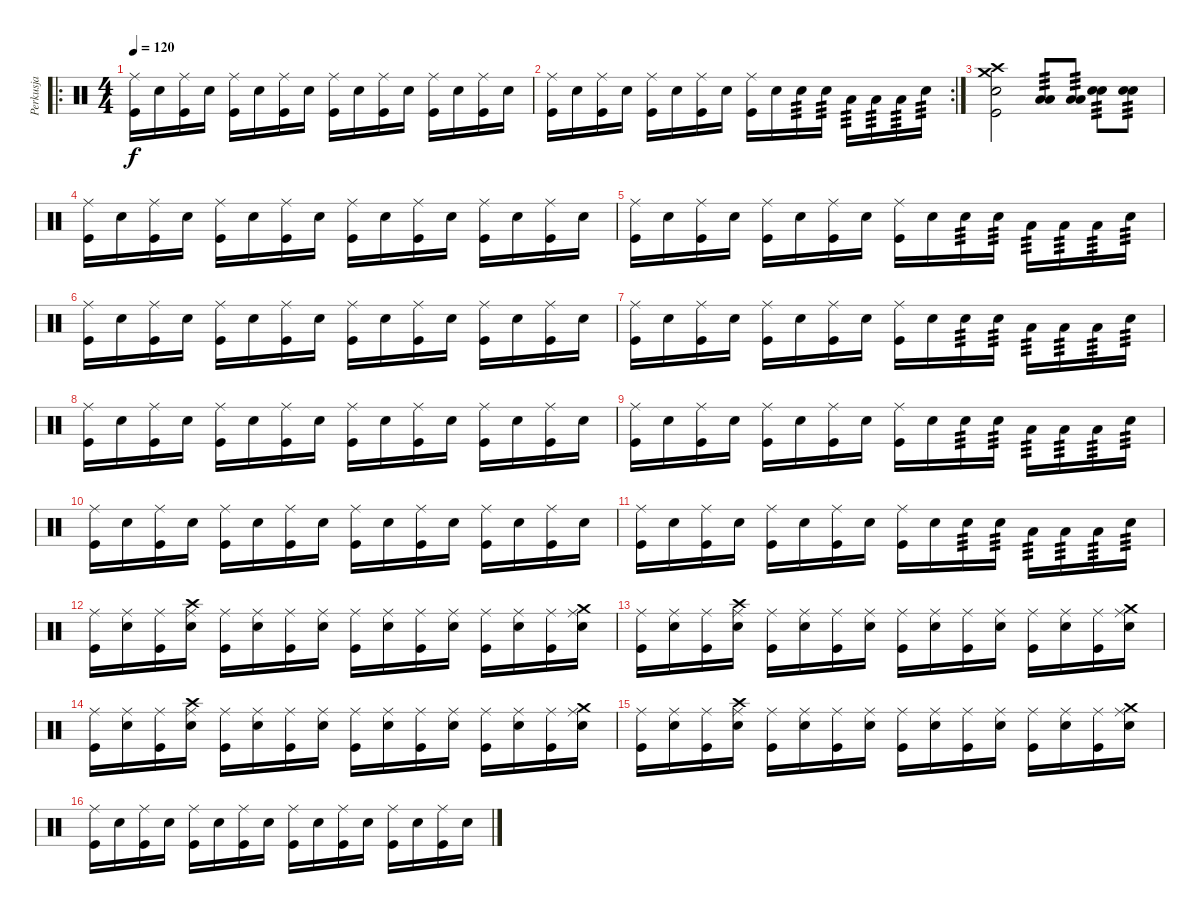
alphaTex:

\track ("Perkusja" "Perkusja") {instrument percussion}
\staff {score}
\articulation defaults
\ro
\ts (4 4)
\tempo 120
\clef neutral
\ks c
("Ride (middle)" "Kick (hit)").16{dy f} "Snare (hit) 2".16 ("Ride (middle)" "Kick (hit)").16 "Snare (hit) 2".16 ("Ride (middle)" "Kick (hit)").16 "Snare (hit) 2".16 ("Ride (middle)" "Kick (hit)").16 "Snare (hit) 2".16 ("Ride (middle)" "Kick (hit)").16 "Snare (hit) 2".16 ("Ride (middle)" "Kick (hit)").16 "Snare (hit) 2".16 ("Ride (middle)" "Kick (hit)").16 "Snare (hit) 2".16 ("Ride (middle)" "Kick (hit)").16 "Snare (hit) 2".16 |
\rc 2
("Ride (middle)" "Kick (hit)").16 "Snare (hit) 2".16 ("Ride (middle)" "Kick (hit)").16 "Snare (hit) 2".16 ("Ride (middle)" "Kick (hit)").16 "Snare (hit) 2".16 ("Ride (middle)" "Kick (hit)").16 "Snare (hit) 2".16 ("Ride (middle)" "Kick (hit)").16 "Snare (hit) 2".16 "Electric Snare (hit)".16{tp 3} "Electric Snare (hit)".16{tp 3} "Low Floor Tom (hit)".16{tp 3} "Low Floor Tom (hit)".16{tp 3} "Low Tom (hit)".16{tp 3} "Snare (hit) 2".16{tp 3} |
("Crash medium (hit)" "Crash high (hit)" "Kick (hit)" "Electric Snare (hit)").2 ("Low Floor Tom (hit)" "Low Tom (hit)").8{tp 3} ("Low Tom (hit)" "Low Floor Tom (hit)").8{tp 3} ("Snare (hit) 2" "Electric Snare (hit)").8{tp 3} ("Snare (hit) 2" "Electric Snare (hit)").8{tp 3} |
("Ride (middle)" "Kick (hit)").16 "Snare (hit) 2".16 ("Ride (middle)" "Kick (hit)").16 "Snare (hit) 2".16 ("Ride (middle)" "Kick (hit)").16 "Snare (hit) 2".16 ("Ride (middle)" "Kick (hit)").16 "Snare (hit) 2".16 ("Ride (middle)" "Kick (hit)").16 "Snare (hit) 2".16 ("Ride (middle)" "Kick (hit)").16 "Snare (hit) 2".16 ("Ride (middle)" "Kick (hit)").16 "Snare (hit) 2".16 ("Ride (middle)" "Kick (hit)").16 "Snare (hit) 2".16 |
("Ride (middle)" "Kick (hit)").16 "Snare (hit) 2".16 ("Ride (middle)" "Kick (hit)").16 "Snare (hit) 2".16 ("Ride (middle)" "Kick (hit)").16 "Snare (hit) 2".16 ("Ride (middle)" "Kick (hit)").16 "Snare (hit) 2".16 ("Ride (middle)" "Kick (hit)").16 "Snare (hit) 2".16 "Electric Snare (hit)".16{tp 3} "Electric Snare (hit)".16{tp 3} "Low Floor Tom (hit)".16{tp 3} "Low Floor Tom (hit)".16{tp 3} "Low Tom (hit)".16{tp 3} "Snare (hit) 2".16{tp 3} |
("Ride (middle)" "Kick (hit)").16 "Snare (hit) 2".16 ("Ride (middle)" "Kick (hit)").16 "Snare (hit) 2".16 ("Ride (middle)" "Kick (hit)").16 "Snare (hit) 2".16 ("Ride (middle)" "Kick (hit)").16 "Snare (hit) 2".16 ("Ride (middle)" "Kick (hit)").16 "Snare (hit) 2".16 ("Ride (middle)" "Kick (hit)").16 "Snare (hit) 2".16 ("Ride (middle)" "Kick (hit)").16 "Snare (hit) 2".16 ("Ride (middle)" "Kick (hit)").16 "Snare (hit) 2".16 |
("Ride (middle)" "Kick (hit)").16 "Snare (hit) 2".16 ("Ride (middle)" "Kick (hit)").16 "Snare (hit) 2".16 ("Ride (middle)" "Kick (hit)").16 "Snare (hit) 2".16 ("Ride (middle)" "Kick (hit)").16 "Snare (hit) 2".16 ("Ride (middle)" "Kick (hit)").16 "Snare (hit) 2".16 "Electric Snare (hit)".16{tp 3} "Electric Snare (hit)".16{tp 3} "Low Floor Tom (hit)".16{tp 3} "Low Floor Tom (hit)".16{tp 3} "Low Tom (hit)".16{tp 3} "Snare (hit) 2".16{tp 3} |
("Ride (middle)" "Kick (hit)").16 "Snare (hit) 2".16 ("Ride (middle)" "Kick (hit)").16 "Snare (hit) 2".16 ("Ride (middle)" "Kick (hit)").16 "Snare (hit) 2".16 ("Ride (middle)" "Kick (hit)").16 "Snare (hit) 2".16 ("Ride (middle)" "Kick (hit)").16 "Snare (hit) 2".16 ("Ride (middle)" "Kick (hit)").16 "Snare (hit) 2".16 ("Ride (middle)" "Kick (hit)").16 "Snare (hit) 2".16 ("Ride (middle)" "Kick (hit)").16 "Snare (hit) 2".16 |
("Ride (middle)" "Kick (hit)").16 "Snare (hit) 2".16 ("Ride (middle)" "Kick (hit)").16 "Snare (hit) 2".16 ("Ride (middle)" "Kick (hit)").16 "Snare (hit) 2".16 ("Ride (middle)" "Kick (hit)").16 "Snare (hit) 2".16 ("Ride (middle)" "Kick (hit)").16 "Snare (hit) 2".16 "Electric Snare (hit)".16{tp 3} "Electric Snare (hit)".16{tp 3} "Low Floor Tom (hit)".16{tp 3} "Low Floor Tom (hit)".16{tp 3} "Low Tom (hit)".16{tp 3} "Snare (hit) 2".16{tp 3} |
("Ride (middle)" "Kick (hit)").16 "Snare (hit) 2".16 ("Ride (middle)" "Kick (hit)").16 "Snare (hit) 2".16 ("Ride (middle)" "Kick (hit)").16 "Snare (hit) 2".16 ("Ride (middle)" "Kick (hit)").16 "Snare (hit) 2".16 ("Ride (middle)" "Kick (hit)").16 "Snare (hit) 2".16 ("Ride (middle)" "Kick (hit)").16 "Snare (hit) 2".16 ("Ride (middle)" "Kick (hit)").16 "Snare (hit) 2".16 ("Ride (middle)" "Kick (hit)").16 "Snare (hit) 2".16 |
("Ride (middle)" "Kick (hit)").16 "Snare (hit) 2".16 ("Ride (middle)" "Kick (hit)").16 "Snare (hit) 2".16 ("Ride (middle)" "Kick (hit)").16 "Snare (hit) 2".16 ("Ride (middle)" "Kick (hit)").16 "Snare (hit) 2".16 ("Ride (middle)" "Kick (hit)").16 "Snare (hit) 2".16 "Electric Snare (hit)".16{tp 3} "Electric Snare (hit)".16{tp 3} "Low Floor Tom (hit)".16{tp 3} "Low Floor Tom (hit)".16{tp 3} "Low Tom (hit)".16{tp 3} "Snare (hit) 2".16{tp 3} |
("Ride (middle)" "Kick (hit)").16 ("Ride (middle)" "Electric Snare (hit)").16 ("Ride (middle)" "Kick (hit)").16 ("Crash high (hit)" "Ride (middle)" "Electric Snare (hit)").16 ("Ride (middle)" "Kick (hit)").16 ("Ride (middle)" "Electric Snare (hit)").16 ("Ride (middle)" "Kick (hit)").16 ("Ride (middle)" "Electric Snare (hit)").16 ("Ride (middle)" "Kick (hit)").16 ("Ride (middle)" "Electric Snare (hit)").16 ("Ride (middle)" "Kick (hit)").16 ("Ride (middle)" "Electric Snare (hit)").16 ("Ride (middle)" "Kick (hit)").16 ("Ride (middle)" "Electric Snare (hit)").16 ("Ride (middle)" "Kick (hit)").16 ("Crash medium (hit)" "Ride (middle)" "Electric Snare (hit)").16 |
("Ride (middle)" "Kick (hit)").16 ("Ride (middle)" "Electric Snare (hit)").16 ("Ride (middle)" "Kick (hit)").16 ("Crash high (hit)" "Ride (middle)" "Electric Snare (hit)").16 ("Ride (middle)" "Kick (hit)").16 ("Ride (middle)" "Electric Snare (hit)").16 ("Ride (middle)" "Kick (hit)").16 ("Ride (middle)" "Electric Snare (hit)").16 ("Ride (middle)" "Kick (hit)").16 ("Ride (middle)" "Electric Snare (hit)").16 ("Ride (middle)" "Kick (hit)").16 ("Ride (middle)" "Electric Snare (hit)").16 ("Ride (middle)" "Kick (hit)").16 ("Ride (middle)" "Electric Snare (hit)").16 ("Ride (middle)" "Kick (hit)").16 ("Crash medium (hit)" "Ride (middle)" "Electric Snare (hit)").16 |
("Ride (middle)" "Kick (hit)").16 ("Ride (middle)" "Electric Snare (hit)").16 ("Ride (middle)" "Kick (hit)").16 ("Crash high (hit)" "Ride (middle)" "Electric Snare (hit)").16 ("Ride (middle)" "Kick (hit)").16 ("Ride (middle)" "Electric Snare (hit)").16 ("Ride (middle)" "Kick (hit)").16 ("Ride (middle)" "Electric Snare (hit)").16 ("Ride (middle)" "Kick (hit)").16 ("Ride (middle)" "Electric Snare (hit)").16 ("Ride (middle)" "Kick (hit)").16 ("Ride (middle)" "Electric Snare (hit)").16 ("Ride (middle)" "Kick (hit)").16 ("Ride (middle)" "Electric Snare (hit)").16 ("Ride (middle)" "Kick (hit)").16 ("Crash medium (hit)" "Ride (middle)" "Electric Snare (hit)").16 |
("Ride (middle)" "Kick (hit)").16 ("Ride (middle)" "Electric Snare (hit)").16 ("Ride (middle)" "Kick (hit)").16 ("Crash high (hit)" "Ride (middle)" "Electric Snare (hit)").16 ("Ride (middle)" "Kick (hit)").16 ("Ride (middle)" "Electric Snare (hit)").16 ("Ride (middle)" "Kick (hit)").16 ("Ride (middle)" "Electric Snare (hit)").16 ("Ride (middle)" "Kick (hit)").16 ("Ride (middle)" "Electric Snare (hit)").16 ("Ride (middle)" "Kick (hit)").16 ("Ride (middle)" "Electric Snare (hit)").16 ("Ride (middle)" "Kick (hit)").16 ("Ride (middle)" "Electric Snare (hit)").16 ("Ride (middle)" "Kick (hit)").16 ("Crash medium (hit)" "Ride (middle)" "Electric Snare (hit)").16 |
("Ride (middle)" "Kick (hit)").16 "Snare (hit) 2".16 ("Ride (middle)" "Kick (hit)").16 "Snare (hit) 2".16 ("Ride (middle)" "Kick (hit)").16 "Snare (hit) 2".16 ("Ride (middle)" "Kick (hit)").16 "Snare (hit) 2".16 ("Ride (middle)" "Kick (hit)").16 "Snare (hit) 2".16 ("Ride (middle)" "Kick (hit)").16 "Snare (hit) 2".16 ("Ride (middle)" "Kick (hit)").16 "Snare (hit) 2".16 ("Ride (middle)" "Kick (hit)").16 "Snare (hit) 2".16
